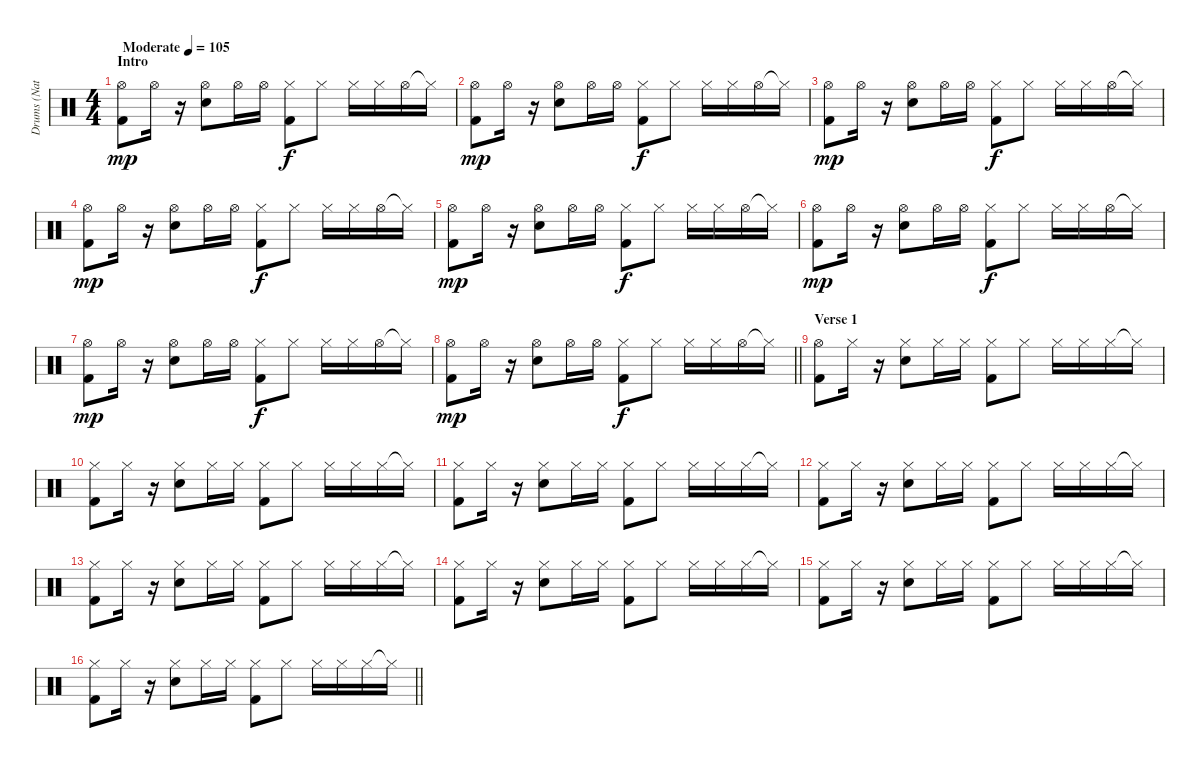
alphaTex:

\track ("Drums (Nathan)" "Drums (Nat") {instrument percussion}
\staff {score}
\articulation defaults
\ts (4 4)
\section ("" "Intro")
\tempo (105 "Moderate")
\clef neutral
\ks c
("Hi-Hat (open)" "Kick (hit) 2").8{dy mp} "Hi-Hat (open)".16 r.16 ("Hi-Hat (open)" "Electric Snare (hit)").8 "Hi-Hat (open)".16 "Hi-Hat (open)".16 ("Hi-Hat (closed)" "Kick (hit) 2").8{dy f} "Hi-Hat (closed)".8 "Hi-Hat (closed)".16 "Hi-Hat (closed)".16 "Hi-Hat (open)".16 "Hi-Hat (closed)"{t}.16 |
("Hi-Hat (open)" "Kick (hit) 2").8{dy mp} "Hi-Hat (open)".16 r.16 ("Hi-Hat (open)" "Electric Snare (hit)").8 "Hi-Hat (open)".16 "Hi-Hat (open)".16 ("Hi-Hat (closed)" "Kick (hit) 2").8{dy f} "Hi-Hat (closed)".8 "Hi-Hat (closed)".16 "Hi-Hat (closed)".16 "Hi-Hat (open)".16 "Hi-Hat (closed)"{t}.16 |
("Hi-Hat (open)" "Kick (hit) 2").8{dy mp} "Hi-Hat (open)".16 r.16 ("Hi-Hat (open)" "Electric Snare (hit)").8 "Hi-Hat (open)".16 "Hi-Hat (open)".16 ("Hi-Hat (closed)" "Kick (hit) 2").8{dy f} "Hi-Hat (closed)".8 "Hi-Hat (closed)".16 "Hi-Hat (closed)".16 "Hi-Hat (open)".16 "Hi-Hat (closed)"{t}.16 |
("Hi-Hat (open)" "Kick (hit) 2").8{dy mp} "Hi-Hat (open)".16 r.16 ("Hi-Hat (open)" "Electric Snare (hit)").8 "Hi-Hat (open)".16 "Hi-Hat (open)".16 ("Hi-Hat (closed)" "Kick (hit) 2").8{dy f} "Hi-Hat (closed)".8 "Hi-Hat (closed)".16 "Hi-Hat (closed)".16 "Hi-Hat (open)".16 "Hi-Hat (closed)"{t}.16 |
("Hi-Hat (open)" "Kick (hit) 2").8{dy mp} "Hi-Hat (open)".16 r.16 ("Hi-Hat (open)" "Electric Snare (hit)").8 "Hi-Hat (open)".16 "Hi-Hat (open)".16 ("Hi-Hat (closed)" "Kick (hit) 2").8{dy f} "Hi-Hat (closed)".8 "Hi-Hat (closed)".16 "Hi-Hat (closed)".16 "Hi-Hat (open)".16 "Hi-Hat (closed)"{t}.16 |
("Hi-Hat (open)" "Kick (hit) 2").8{dy mp} "Hi-Hat (open)".16 r.16 ("Hi-Hat (open)" "Electric Snare (hit)").8 "Hi-Hat (open)".16 "Hi-Hat (open)".16 ("Hi-Hat (closed)" "Kick (hit) 2").8{dy f} "Hi-Hat (closed)".8 "Hi-Hat (closed)".16 "Hi-Hat (closed)".16 "Hi-Hat (open)".16 "Hi-Hat (closed)"{t}.16 |
("Hi-Hat (open)" "Kick (hit) 2").8{dy mp} "Hi-Hat (open)".16 r.16 ("Hi-Hat (open)" "Electric Snare (hit)").8 "Hi-Hat (open)".16 "Hi-Hat (open)".16 ("Hi-Hat (closed)" "Kick (hit) 2").8{dy f} "Hi-Hat (closed)".8 "Hi-Hat (closed)".16 "Hi-Hat (closed)".16 "Hi-Hat (open)".16 "Hi-Hat (closed)"{t}.16 |
\barLineRight lightlight
("Hi-Hat (open)" "Kick (hit) 2").8{dy mp} "Hi-Hat (open)".16 r.16 ("Hi-Hat (open)" "Electric Snare (hit)").8 "Hi-Hat (open)".16 "Hi-Hat (open)".16 ("Hi-Hat (closed)" "Kick (hit) 2").8{dy f} "Hi-Hat (closed)".8 "Hi-Hat (closed)".16 "Hi-Hat (closed)".16 "Hi-Hat (open)".16 "Hi-Hat (closed)"{t}.16 |
\section ("" "Verse 1")
("Hi-Hat (open)" "Kick (hit) 2").8 "Hi-Hat (closed)".16 r.16 ("Hi-Hat (closed)" "Electric Snare (hit)").8 "Hi-Hat (closed)".16 "Hi-Hat (closed)".16 ("Hi-Hat (closed)" "Kick (hit) 2").8 "Hi-Hat (closed)".8 "Hi-Hat (closed)".16 "Hi-Hat (closed)".16 "Hi-Hat (closed)".16 "Hi-Hat (closed)"{t}.16 |
("Hi-Hat (closed)" "Kick (hit) 2").8 "Hi-Hat (closed)".16 r.16 ("Hi-Hat (closed)" "Electric Snare (hit)").8 "Hi-Hat (closed)".16 "Hi-Hat (closed)".16 ("Hi-Hat (closed)" "Kick (hit) 2").8 "Hi-Hat (closed)".8 "Hi-Hat (closed)".16 "Hi-Hat (closed)".16 "Hi-Hat (closed)".16 "Hi-Hat (closed)"{t}.16 |
("Hi-Hat (closed)" "Kick (hit) 2").8 "Hi-Hat (closed)".16 r.16 ("Hi-Hat (closed)" "Electric Snare (hit)").8 "Hi-Hat (closed)".16 "Hi-Hat (closed)".16 ("Hi-Hat (closed)" "Kick (hit) 2").8 "Hi-Hat (closed)".8 "Hi-Hat (closed)".16 "Hi-Hat (closed)".16 "Hi-Hat (closed)".16 "Hi-Hat (closed)"{t}.16 |
("Hi-Hat (closed)" "Kick (hit) 2").8 "Hi-Hat (closed)".16 r.16 ("Hi-Hat (closed)" "Electric Snare (hit)").8 "Hi-Hat (closed)".16 "Hi-Hat (closed)".16 ("Hi-Hat (closed)" "Kick (hit) 2").8 "Hi-Hat (closed)".8 "Hi-Hat (closed)".16 "Hi-Hat (closed)".16 "Hi-Hat (closed)".16 "Hi-Hat (closed)"{t}.16 |
("Hi-Hat (closed)" "Kick (hit) 2").8 "Hi-Hat (closed)".16 r.16 ("Hi-Hat (closed)" "Electric Snare (hit)").8 "Hi-Hat (closed)".16 "Hi-Hat (closed)".16 ("Hi-Hat (closed)" "Kick (hit) 2").8 "Hi-Hat (closed)".8 "Hi-Hat (closed)".16 "Hi-Hat (closed)".16 "Hi-Hat (closed)".16 "Hi-Hat (closed)"{t}.16 |
("Hi-Hat (closed)" "Kick (hit) 2").8 "Hi-Hat (closed)".16 r.16 ("Hi-Hat (closed)" "Electric Snare (hit)").8 "Hi-Hat (closed)".16 "Hi-Hat (closed)".16 ("Hi-Hat (closed)" "Kick (hit) 2").8 "Hi-Hat (closed)".8 "Hi-Hat (closed)".16 "Hi-Hat (closed)".16 "Hi-Hat (closed)".16 "Hi-Hat (closed)"{t}.16 |
("Hi-Hat (closed)" "Kick (hit) 2").8 "Hi-Hat (closed)".16 r.16 ("Hi-Hat (closed)" "Electric Snare (hit)").8 "Hi-Hat (closed)".16 "Hi-Hat (closed)".16 ("Hi-Hat (closed)" "Kick (hit) 2").8 "Hi-Hat (closed)".8 "Hi-Hat (closed)".16 "Hi-Hat (closed)".16 "Hi-Hat (closed)".16 "Hi-Hat (closed)"{t}.16 |
\barLineRight lightlight
("Hi-Hat (closed)" "Kick (hit) 2").8 "Hi-Hat (closed)".16 r.16 ("Hi-Hat (closed)" "Electric Snare (hit)").8 "Hi-Hat (closed)".16 "Hi-Hat (closed)".16 ("Hi-Hat (closed)" "Kick (hit) 2").8 "Hi-Hat (closed)".8 "Hi-Hat (closed)".16 "Hi-Hat (closed)".16 "Hi-Hat (closed)".16 "Hi-Hat (closed)"{t}.16
